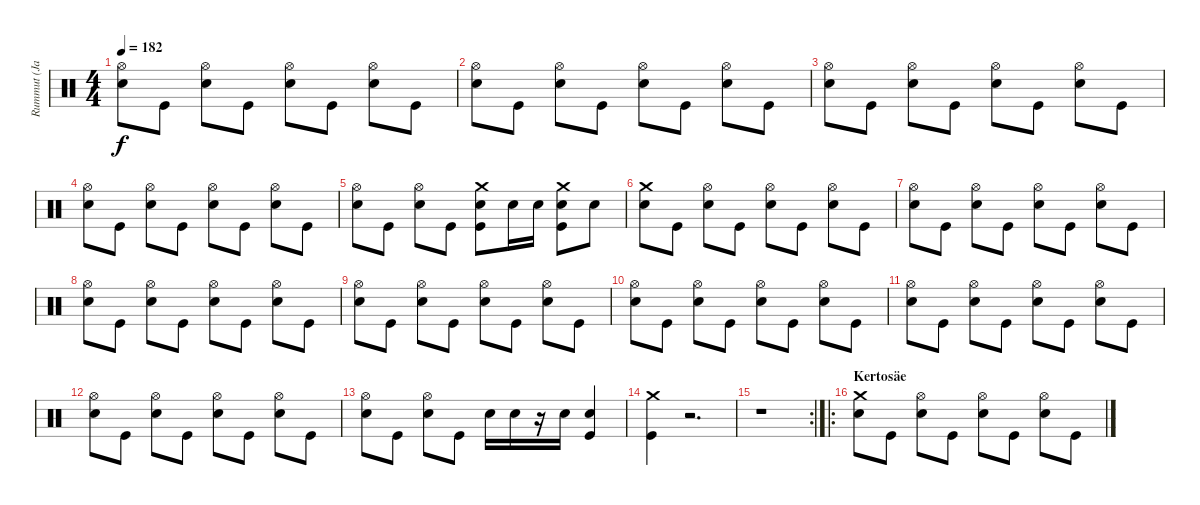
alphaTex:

\track ("Rummut (Janne)" "Rummut (Ja") {instrument percussion}
\staff {score}
\articulation defaults
\ts (4 4)
\tempo 182
\clef neutral
\ks c
("Hi-Hat (open)" "Snare (hit) 2").8{dy f} "Kick (hit)".8 ("Hi-Hat (open)" "Snare (hit) 2").8 "Kick (hit)".8 ("Hi-Hat (open)" "Snare (hit) 2").8 "Kick (hit)".8 ("Hi-Hat (open)" "Snare (hit) 2").8 "Kick (hit)".8 |
("Hi-Hat (open)" "Snare (hit) 2").8 "Kick (hit)".8 ("Hi-Hat (open)" "Snare (hit) 2").8 "Kick (hit)".8 ("Hi-Hat (open)" "Snare (hit) 2").8 "Kick (hit)".8 ("Hi-Hat (open)" "Snare (hit) 2").8 "Kick (hit)".8 |
("Hi-Hat (open)" "Snare (hit) 2").8 "Kick (hit)".8 ("Hi-Hat (open)" "Snare (hit) 2").8 "Kick (hit)".8 ("Hi-Hat (open)" "Snare (hit) 2").8 "Kick (hit)".8 ("Hi-Hat (open)" "Snare (hit) 2").8 "Kick (hit)".8 |
("Hi-Hat (open)" "Snare (hit) 2").8 "Kick (hit)".8 ("Hi-Hat (open)" "Snare (hit) 2").8 "Kick (hit)".8 ("Hi-Hat (open)" "Snare (hit) 2").8 "Kick (hit)".8 ("Hi-Hat (open)" "Snare (hit) 2").8 "Kick (hit)".8 |
("Hi-Hat (open)" "Snare (hit) 2").8 "Kick (hit)".8 ("Hi-Hat (open)" "Snare (hit) 2").8 "Kick (hit)".8 ("Crash medium (hit)" "Snare (hit) 2" "Kick (hit)").8 "Snare (hit) 2".16 "Snare (hit) 2".16 ("Crash medium (hit)" "Snare (hit) 2" "Kick (hit)").8 "Snare (hit) 2".8 |
("Crash medium (hit)" "Snare (hit) 2").8 "Kick (hit)".8 ("Hi-Hat (open)" "Snare (hit) 2").8 "Kick (hit)".8 ("Hi-Hat (open)" "Snare (hit) 2").8 "Kick (hit)".8 ("Hi-Hat (open)" "Snare (hit) 2").8 "Kick (hit)".8 |
("Hi-Hat (open)" "Snare (hit) 2").8 "Kick (hit)".8 ("Hi-Hat (open)" "Snare (hit) 2").8 "Kick (hit)".8 ("Hi-Hat (open)" "Snare (hit) 2").8 "Kick (hit)".8 ("Hi-Hat (open)" "Snare (hit) 2").8 "Kick (hit)".8 |
("Hi-Hat (open)" "Snare (hit) 2").8 "Kick (hit)".8 ("Hi-Hat (open)" "Snare (hit) 2").8 "Kick (hit)".8 ("Hi-Hat (open)" "Snare (hit) 2").8 "Kick (hit)".8 ("Hi-Hat (open)" "Snare (hit) 2").8 "Kick (hit)".8 |
("Hi-Hat (open)" "Snare (hit) 2").8 "Kick (hit)".8 ("Hi-Hat (open)" "Snare (hit) 2").8 "Kick (hit)".8 ("Hi-Hat (open)" "Snare (hit) 2").8 "Kick (hit)".8 ("Hi-Hat (open)" "Snare (hit) 2").8 "Kick (hit)".8 |
("Hi-Hat (open)" "Snare (hit) 2").8 "Kick (hit)".8 ("Hi-Hat (open)" "Snare (hit) 2").8 "Kick (hit)".8 ("Hi-Hat (open)" "Snare (hit) 2").8 "Kick (hit)".8 ("Hi-Hat (open)" "Snare (hit) 2").8 "Kick (hit)".8 |
("Hi-Hat (open)" "Snare (hit) 2").8 "Kick (hit)".8 ("Hi-Hat (open)" "Snare (hit) 2").8 "Kick (hit)".8 ("Hi-Hat (open)" "Snare (hit) 2").8 "Kick (hit)".8 ("Hi-Hat (open)" "Snare (hit) 2").8 "Kick (hit)".8 |
("Hi-Hat (open)" "Snare (hit) 2").8 "Kick (hit)".8 ("Hi-Hat (open)" "Snare (hit) 2").8 "Kick (hit)".8 ("Hi-Hat (open)" "Snare (hit) 2").8 "Kick (hit)".8 ("Hi-Hat (open)" "Snare (hit) 2").8 "Kick (hit)".8 |
("Hi-Hat (open)" "Snare (hit) 2").8 "Kick (hit)".8 ("Hi-Hat (open)" "Snare (hit) 2").8 "Kick (hit)".8 "Snare (hit) 2".16 "Snare (hit) 2".16 r.16 "Snare (hit) 2".16 ("Snare (hit) 2" "Kick (hit)").4 |
("Crash medium (hit)" "Kick (hit)").4 r.2{d} |
\rc 2
r.1 |
\ro
\section ("" "Kertosäe")
("Crash medium (hit)" "Snare (hit) 2").8 "Kick (hit)".8 ("Hi-Hat (open)" "Snare (hit) 2").8 "Kick (hit)".8 ("Hi-Hat (open)" "Snare (hit) 2").8 "Kick (hit)".8 ("Hi-Hat (open)" "Snare (hit) 2").8 "Kick (hit)".8
